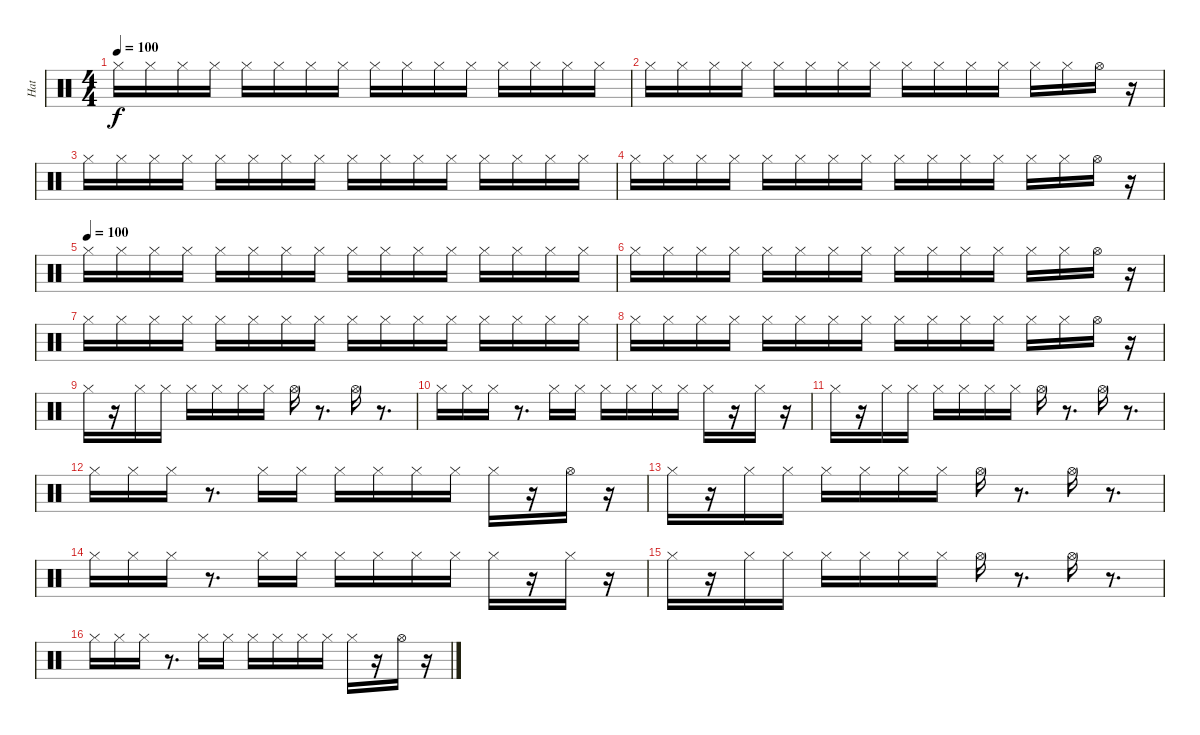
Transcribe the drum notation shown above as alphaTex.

\track ("Hat" "Hat") {instrument percussion}
\staff {score}
\articulation defaults
\ts (4 4)
\tempo 100
\clef neutral
\ks c "Hi-Hat (closed)".16{dy f} "Hi-Hat (closed)".16 "Hi-Hat (closed)".16 "Hi-Hat (closed)".16 "Hi-Hat (closed)".16 "Hi-Hat (closed)".16 "Hi-Hat (closed)".16 "Hi-Hat (closed)".16 "Hi-Hat (closed)".16 "Hi-Hat (closed)".16 "Hi-Hat (closed)".16 "Hi-Hat (closed)".16 "Hi-Hat (closed)".16 "Hi-Hat (closed)".16 "Hi-Hat (closed)".16 "Hi-Hat (closed)".16
|
"Hi-Hat (closed)".16 "Hi-Hat (closed)".16 "Hi-Hat (closed)".16 "Hi-Hat (closed)".16 "Hi-Hat (closed)".16 "Hi-Hat (closed)".16 "Hi-Hat (closed)".16 "Hi-Hat (closed)".16 "Hi-Hat (closed)".16 "Hi-Hat (closed)".16 "Hi-Hat (closed)".16 "Hi-Hat (closed)".16 "Hi-Hat (closed)".16 "Hi-Hat (closed)".16 "Hi-Hat (open)".16 r.16 |
"Hi-Hat (closed)".16 "Hi-Hat (closed)".16 "Hi-Hat (closed)".16 "Hi-Hat (closed)".16 "Hi-Hat (closed)".16 "Hi-Hat (closed)".16 "Hi-Hat (closed)".16 "Hi-Hat (closed)".16 "Hi-Hat (closed)".16 "Hi-Hat (closed)".16 "Hi-Hat (closed)".16 "Hi-Hat (closed)".16 "Hi-Hat (closed)".16 "Hi-Hat (closed)".16 "Hi-Hat (closed)".16 "Hi-Hat (closed)".16 |
"Hi-Hat (closed)".16 "Hi-Hat (closed)".16 "Hi-Hat (closed)".16 "Hi-Hat (closed)".16 "Hi-Hat (closed)".16 "Hi-Hat (closed)".16 "Hi-Hat (closed)".16 "Hi-Hat (closed)".16 "Hi-Hat (closed)".16 "Hi-Hat (closed)".16 "Hi-Hat (closed)".16 "Hi-Hat (closed)".16 "Hi-Hat (closed)".16 "Hi-Hat (closed)".16 "Hi-Hat (open)".16 r.16 |
\tempo (100)
"Hi-Hat (closed)".16 "Hi-Hat (closed)".16 "Hi-Hat (closed)".16 "Hi-Hat (closed)".16 "Hi-Hat (closed)".16 "Hi-Hat (closed)".16 "Hi-Hat (closed)".16 "Hi-Hat (closed)".16 "Hi-Hat (closed)".16 "Hi-Hat (closed)".16 "Hi-Hat (closed)".16 "Hi-Hat (closed)".16 "Hi-Hat (closed)".16 "Hi-Hat (closed)".16 "Hi-Hat (closed)".16 "Hi-Hat (closed)".16 |
"Hi-Hat (closed)".16 "Hi-Hat (closed)".16 "Hi-Hat (closed)".16 "Hi-Hat (closed)".16 "Hi-Hat (closed)".16 "Hi-Hat (closed)".16 "Hi-Hat (closed)".16 "Hi-Hat (closed)".16 "Hi-Hat (closed)".16 "Hi-Hat (closed)".16 "Hi-Hat (closed)".16 "Hi-Hat (closed)".16 "Hi-Hat (closed)".16 "Hi-Hat (closed)".16 "Hi-Hat (open)".16 r.16 |
"Hi-Hat (closed)".16 "Hi-Hat (closed)".16 "Hi-Hat (closed)".16 "Hi-Hat (closed)".16 "Hi-Hat (closed)".16 "Hi-Hat (closed)".16 "Hi-Hat (closed)".16 "Hi-Hat (closed)".16 "Hi-Hat (closed)".16 "Hi-Hat (closed)".16 "Hi-Hat (closed)".16 "Hi-Hat (closed)".16 "Hi-Hat (closed)".16 "Hi-Hat (closed)".16 "Hi-Hat (closed)".16 "Hi-Hat (closed)".16 |
"Hi-Hat (closed)".16 "Hi-Hat (closed)".16 "Hi-Hat (closed)".16 "Hi-Hat (closed)".16 "Hi-Hat (closed)".16 "Hi-Hat (closed)".16 "Hi-Hat (closed)".16 "Hi-Hat (closed)".16 "Hi-Hat (closed)".16 "Hi-Hat (closed)".16 "Hi-Hat (closed)".16 "Hi-Hat (closed)".16 "Hi-Hat (closed)".16 "Hi-Hat (closed)".16 "Hi-Hat (open)".16 r.16 |
"Hi-Hat (closed)".16 r.16 "Hi-Hat (closed)".16 "Hi-Hat (closed)".16 "Hi-Hat (closed)".16 "Hi-Hat (closed)".16 "Hi-Hat (closed)".16 "Hi-Hat (closed)".16 "Hi-Hat (open)".16 r.8{d} "Hi-Hat (open)".16 r.8{d} |
"Hi-Hat (closed)".16 "Hi-Hat (closed)".16 "Hi-Hat (closed)".16 r.8{d} "Hi-Hat (closed)".16 "Hi-Hat (closed)".16 "Hi-Hat (closed)".16 "Hi-Hat (closed)".16 "Hi-Hat (closed)".16 "Hi-Hat (closed)".16 "Hi-Hat (closed)".16 r.16 "Hi-Hat (closed)".16 r.16 |
"Hi-Hat (closed)".16 r.16 "Hi-Hat (closed)".16 "Hi-Hat (closed)".16 "Hi-Hat (closed)".16 "Hi-Hat (closed)".16 "Hi-Hat (closed)".16 "Hi-Hat (closed)".16 "Hi-Hat (open)".16 r.8{d} "Hi-Hat (open)".16 r.8{d} |
"Hi-Hat (closed)".16 "Hi-Hat (closed)".16 "Hi-Hat (closed)".16 r.8{d} "Hi-Hat (closed)".16 "Hi-Hat (closed)".16 "Hi-Hat (closed)".16 "Hi-Hat (closed)".16 "Hi-Hat (closed)".16 "Hi-Hat (closed)".16 "Hi-Hat (closed)".16 r.16 "Hi-Hat (open)".16 r.16 |
"Hi-Hat (closed)".16 r.16 "Hi-Hat (closed)".16 "Hi-Hat (closed)".16 "Hi-Hat (closed)".16 "Hi-Hat (closed)".16 "Hi-Hat (closed)".16 "Hi-Hat (closed)".16 "Hi-Hat (open)".16 r.8{d} "Hi-Hat (open)".16 r.8{d} |
"Hi-Hat (closed)".16 "Hi-Hat (closed)".16 "Hi-Hat (closed)".16 r.8{d} "Hi-Hat (closed)".16 "Hi-Hat (closed)".16 "Hi-Hat (closed)".16 "Hi-Hat (closed)".16 "Hi-Hat (closed)".16 "Hi-Hat (closed)".16 "Hi-Hat (closed)".16 r.16 "Hi-Hat (closed)".16 r.16 |
"Hi-Hat (closed)".16 r.16 "Hi-Hat (closed)".16 "Hi-Hat (closed)".16 "Hi-Hat (closed)".16 "Hi-Hat (closed)".16 "Hi-Hat (closed)".16 "Hi-Hat (closed)".16 "Hi-Hat (open)".16 r.8{d} "Hi-Hat (open)".16 r.8{d} |
"Hi-Hat (closed)".16 "Hi-Hat (closed)".16 "Hi-Hat (closed)".16 r.8{d} "Hi-Hat (closed)".16 "Hi-Hat (closed)".16 "Hi-Hat (closed)".16 "Hi-Hat (closed)".16 "Hi-Hat (closed)".16 "Hi-Hat (closed)".16 "Hi-Hat (closed)".16 r.16 "Hi-Hat (open)".16 r.16
